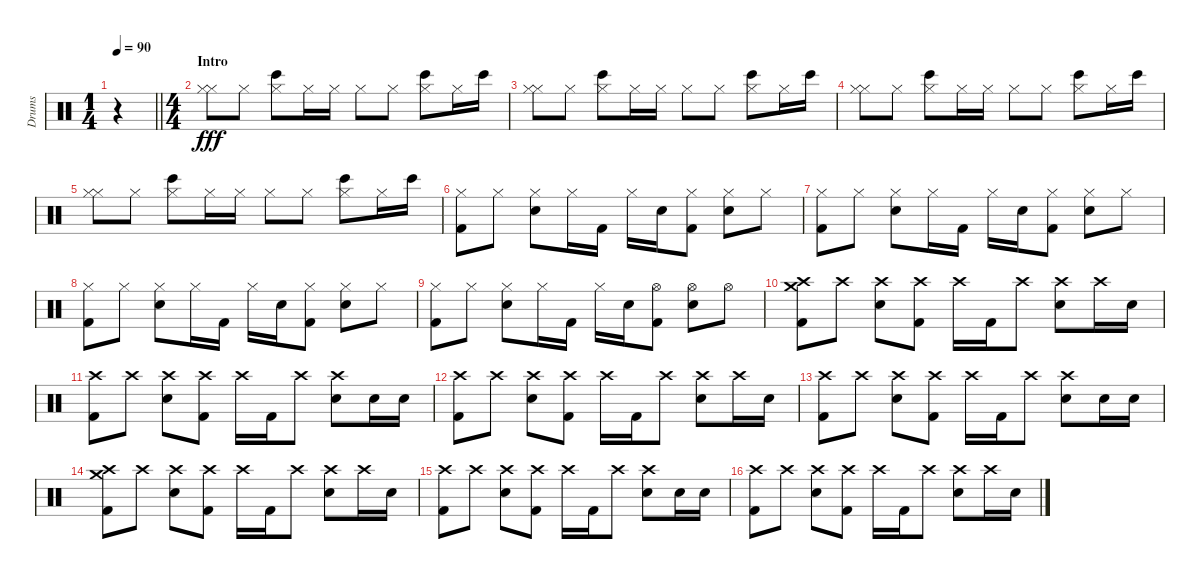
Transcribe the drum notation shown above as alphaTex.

\track ("Drums" "Drums") {instrument percussion}
\staff {score}
\articulation defaults
\ts (1 4)
\tempo 90
\clef neutral
\barLineRight lightlight
\ks c
r.4{dy fff} |
\ts (4 4)
\section ("" "Intro")
("Hi-Hat (closed)" "Hi-Hat (closed)").8 "Hi-Hat (closed)".8 ("Hi-Hat (closed)" "Bongo High (hit)").8 "Hi-Hat (closed)".16 "Hi-Hat (closed)".16 "Hi-Hat (closed)".8 "Hi-Hat (closed)".8 ("Hi-Hat (closed)" "Bongo High (hit)").8 "Hi-Hat (closed)".16 "Bongo High (hit)".16 |
("Hi-Hat (closed)" "Hi-Hat (closed)").8 "Hi-Hat (closed)".8 ("Hi-Hat (closed)" "Bongo High (hit)").8 "Hi-Hat (closed)".16 "Hi-Hat (closed)".16 "Hi-Hat (closed)".8 "Hi-Hat (closed)".8 ("Hi-Hat (closed)" "Bongo High (hit)").8 "Hi-Hat (closed)".16 "Bongo High (hit)".16 |
("Hi-Hat (closed)" "Hi-Hat (closed)").8 "Hi-Hat (closed)".8 ("Hi-Hat (closed)" "Bongo High (hit)").8 "Hi-Hat (closed)".16 "Hi-Hat (closed)".16 "Hi-Hat (closed)".8 "Hi-Hat (closed)".8 ("Hi-Hat (closed)" "Bongo High (hit)").8 "Hi-Hat (closed)".16 "Bongo High (hit)".16 |
("Hi-Hat (closed)" "Hi-Hat (closed)").8 "Hi-Hat (closed)".8 ("Hi-Hat (closed)" "Bongo High (hit)").8 "Hi-Hat (closed)".16 "Hi-Hat (closed)".16 "Hi-Hat (closed)".8 "Hi-Hat (closed)".8 ("Hi-Hat (closed)" "Bongo High (hit)").8 "Hi-Hat (closed)".16 "Bongo High (hit)".16 |
("Hi-Hat (closed)" "Kick (hit) 2").8 "Hi-Hat (closed)".8 ("Hi-Hat (closed)" "Electric Snare (hit)").8 "Hi-Hat (closed)".16 "Kick (hit) 2".16 "Hi-Hat (closed)".16 "Electric Snare (hit)".16 ("Hi-Hat (closed)" "Kick (hit) 2").8 ("Hi-Hat (closed)" "Electric Snare (hit)").8 "Hi-Hat (closed)".8 |
("Hi-Hat (closed)" "Kick (hit) 2").8 "Hi-Hat (closed)".8 ("Hi-Hat (closed)" "Electric Snare (hit)").8 "Hi-Hat (closed)".16 "Kick (hit) 2".16 "Hi-Hat (closed)".16 "Electric Snare (hit)".16 ("Hi-Hat (closed)" "Kick (hit) 2").8 ("Hi-Hat (closed)" "Electric Snare (hit)").8 "Hi-Hat (closed)".8 |
("Hi-Hat (closed)" "Kick (hit) 2").8 "Hi-Hat (closed)".8 ("Hi-Hat (closed)" "Electric Snare (hit)").8 "Hi-Hat (closed)".16 "Kick (hit) 2".16 "Hi-Hat (closed)".16 "Electric Snare (hit)".16 ("Hi-Hat (closed)" "Kick (hit) 2").8 ("Hi-Hat (closed)" "Electric Snare (hit)").8 "Hi-Hat (closed)".8 |
("Hi-Hat (closed)" "Kick (hit) 2").8 "Hi-Hat (closed)".8 ("Hi-Hat (closed)" "Electric Snare (hit)").8 "Hi-Hat (closed)".16 "Kick (hit) 2".16 "Hi-Hat (closed)".16 "Electric Snare (hit)".16 ("Hi-Hat (open)" "Kick (hit) 2").8 ("Hi-Hat (open)" "Electric Snare (hit)").8 "Hi-Hat (open)".8 |
("Crash high (hit)" "Crash medium (hit)" "Kick (hit) 2").8 "Crash high (hit)".8 ("Crash high (hit)" "Electric Snare (hit)").8 ("Crash high (hit)" "Kick (hit) 2").8 "Crash high (hit)".16 "Kick (hit) 2".16 "Crash high (hit)".8 ("Crash high (hit)" "Electric Snare (hit)").8 "Crash high (hit)".16 "Electric Snare (hit)".16 |
("Crash high (hit)" "Kick (hit) 2").8 "Crash high (hit)".8 ("Crash high (hit)" "Electric Snare (hit)").8 ("Crash high (hit)" "Kick (hit) 2").8 "Crash high (hit)".16 "Kick (hit) 2".16 "Crash high (hit)".8 ("Crash high (hit)" "Electric Snare (hit)").8 "Electric Snare (hit)".16 "Electric Snare (hit)".16 |
("Crash high (hit)" "Kick (hit) 2").8 "Crash high (hit)".8 ("Crash high (hit)" "Electric Snare (hit)").8 ("Crash high (hit)" "Kick (hit) 2").8 "Crash high (hit)".16 "Kick (hit) 2".16 "Crash high (hit)".8 ("Crash high (hit)" "Electric Snare (hit)").8 "Crash high (hit)".16 "Electric Snare (hit)".16 |
("Crash high (hit)" "Kick (hit) 2").8 "Crash high (hit)".8 ("Crash high (hit)" "Electric Snare (hit)").8 ("Crash high (hit)" "Kick (hit) 2").8 "Crash high (hit)".16 "Kick (hit) 2".16 "Crash high (hit)".8 ("Crash high (hit)" "Electric Snare (hit)").8 "Electric Snare (hit)".16 "Electric Snare (hit)".16 |
("Crash high (hit)" "Crash medium (hit)" "Kick (hit) 2").8 "Crash high (hit)".8 ("Crash high (hit)" "Electric Snare (hit)").8 ("Crash high (hit)" "Kick (hit) 2").8 "Crash high (hit)".16 "Kick (hit) 2".16 "Crash high (hit)".8 ("Crash high (hit)" "Electric Snare (hit)").8 "Crash high (hit)".16 "Electric Snare (hit)".16 |
("Crash high (hit)" "Kick (hit) 2").8 "Crash high (hit)".8 ("Crash high (hit)" "Electric Snare (hit)").8 ("Crash high (hit)" "Kick (hit) 2").8 "Crash high (hit)".16 "Kick (hit) 2".16 "Crash high (hit)".8 ("Crash high (hit)" "Electric Snare (hit)").8 "Electric Snare (hit)".16 "Electric Snare (hit)".16 |
("Crash high (hit)" "Kick (hit) 2").8 "Crash high (hit)".8 ("Crash high (hit)" "Electric Snare (hit)").8 ("Crash high (hit)" "Kick (hit) 2").8 "Crash high (hit)".16 "Kick (hit) 2".16 "Crash high (hit)".8 ("Crash high (hit)" "Electric Snare (hit)").8 "Crash high (hit)".16 "Electric Snare (hit)".16
